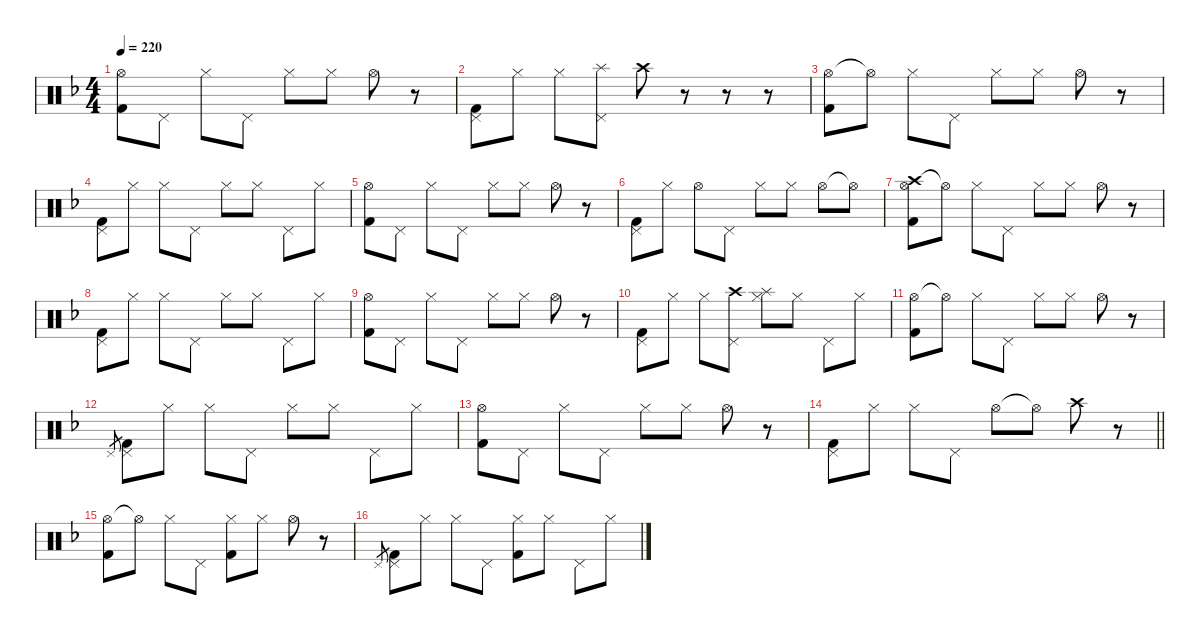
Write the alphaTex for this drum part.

\hideDynamics
\bracketExtendMode nobrackets
\singleTrackTrackNamePolicy hidden
\multiTrackTrackNamePolicy hidden
\firstSystemTrackNameMode fullname
\firstSystemTrackNameOrientation horizontal
\otherSystemsTrackNameOrientation horizontal
\track ("Drumkit" "Drums") {instrument percussion}
\staff {score}
\articulation defaults
\ts (4 4)
\tempo 220
\clef neutral
\ks dminor
("Hi-Hat (open)"{acc forcenatural} "Kick (hit) 2"{acc forcenatural}).8{dy mp beam Down} "Pedal Hi-Hat (hit)"{acc forcenatural}.8{beam Down} "Hi-Hat (closed)"{acc forcenatural}.8{dy p beam Down} "Pedal Hi-Hat (hit)"{acc forcenatural}.8{beam Down} "Hi-Hat (closed)"{acc forcenatural}.8{dy mp beam Down} "Hi-Hat (closed)"{acc forcenatural}.8{beam Down} "Hi-Hat (open)"{acc forcenatural}.8{beam Down} r.8{beam Down} |
("Pedal Hi-Hat (hit)"{acc forcenatural} "Kick (hit) 2"{acc forcenatural}).8{dy p beam Down} "Hi-Hat (closed)"{acc forcenatural}.8{beam Down} "Hi-Hat (closed)"{acc forcenatural}.8{dy mp beam Down} ("Splash (hit)"{acc forcenatural} "Pedal Hi-Hat (hit)"{acc forcenatural}).8{dy mf beam Down} "Crash high (hit)"{acc forcenatural}.8{dy mp beam Down} r.8{beam Down} r.8{beam Down} r.8{beam Down} |
("Hi-Hat (open)"{acc forcenatural} "Kick (hit) 2"{acc forcenatural}).8{beam Down} "Hi-Hat (open)"{t acc forcenatural}.8{beam Down} "Hi-Hat (closed)"{acc forcenatural}.8{dy p beam Down} "Pedal Hi-Hat (hit)"{acc forcenatural}.8{beam Down} "Hi-Hat (closed)"{acc forcenatural}.8{dy mp beam Down} "Hi-Hat (closed)"{acc forcenatural}.8{beam Down} "Hi-Hat (open)"{acc forcenatural}.8{beam Down} r.8{beam Down} |
("Pedal Hi-Hat (hit)"{acc forcenatural} "Kick (hit) 2"{acc forcenatural}).8{dy p beam Down} "Hi-Hat (closed)"{acc forcenatural}.8{beam Down} "Hi-Hat (closed)"{acc forcenatural}.8{dy mp beam Down} "Pedal Hi-Hat (hit)"{acc forcenatural}.8{dy mf beam Down} "Hi-Hat (closed)"{acc forcenatural}.8{dy mp beam Down} "Hi-Hat (closed)"{acc forcenatural}.8{beam Down} "Pedal Hi-Hat (hit)"{acc forcenatural}.8{dy p beam Down} "Hi-Hat (closed)"{acc forcenatural}.8{beam Down} |
("Hi-Hat (open)"{acc forcenatural} "Kick (hit) 2"{acc forcenatural}).8{dy mp beam Down} "Pedal Hi-Hat (hit)"{acc forcenatural}.8{beam Down} "Hi-Hat (closed)"{acc forcenatural}.8{dy p beam Down} "Pedal Hi-Hat (hit)"{acc forcenatural}.8{beam Down} "Hi-Hat (closed)"{acc forcenatural}.8{dy mp beam Down} "Hi-Hat (closed)"{acc forcenatural}.8{beam Down} "Hi-Hat (open)"{acc forcenatural}.8{beam Down} r.8{beam Down} |
("Pedal Hi-Hat (hit)"{acc forcenatural} "Kick (hit) 2"{acc forcenatural}).8{dy p beam Down} "Hi-Hat (closed)"{acc forcenatural}.8{beam Down} "Hi-Hat (open)"{acc forcenatural}.8{dy mp beam Down} "Pedal Hi-Hat (hit)"{acc forcenatural}.8{dy f beam Down} "Hi-Hat (closed)"{acc forcenatural}.8{dy mp beam Down} "Hi-Hat (closed)"{acc forcenatural}.8{beam Down} "Hi-Hat (open)"{acc forcenatural}.8{dy p beam Down} "Hi-Hat (open)"{t acc forcenatural}.8{beam Down} |
("Crash high (hit)"{acc forcenatural} "Hi-Hat (open)"{acc forcenatural} "Kick (hit) 2"{acc forcenatural}).8{dy mp beam Down} "Hi-Hat (open)"{t acc forcenatural}.8{beam Down} "Hi-Hat (closed)"{acc forcenatural}.8{dy p beam Down} "Pedal Hi-Hat (hit)"{acc forcenatural}.8{beam Down} "Hi-Hat (closed)"{acc forcenatural}.8{dy mp beam Down} "Hi-Hat (closed)"{acc forcenatural}.8{beam Down} "Hi-Hat (open)"{acc forcenatural}.8{beam Down} r.8{beam Down} |
("Pedal Hi-Hat (hit)"{acc forcenatural} "Kick (hit) 2"{acc forcenatural}).8{dy p beam Down} "Hi-Hat (closed)"{acc forcenatural}.8{beam Down} "Hi-Hat (closed)"{acc forcenatural}.8{dy mp beam Down} "Pedal Hi-Hat (hit)"{acc forcenatural}.8{dy mf beam Down} "Hi-Hat (closed)"{acc forcenatural}.8{dy mp beam Down} "Hi-Hat (closed)"{acc forcenatural}.8{beam Down} "Pedal Hi-Hat (hit)"{acc forcenatural}.8{dy p beam Down} "Hi-Hat (closed)"{acc forcenatural}.8{beam Down} |
("Hi-Hat (open)"{acc forcenatural} "Kick (hit) 2"{acc forcenatural}).8{dy mp beam Down} "Pedal Hi-Hat (hit)"{acc forcenatural}.8{beam Down} "Hi-Hat (closed)"{acc forcenatural}.8{dy p beam Down} "Pedal Hi-Hat (hit)"{acc forcenatural}.8{beam Down} "Hi-Hat (closed)"{acc forcenatural}.8{dy mp beam Down} "Hi-Hat (closed)"{acc forcenatural}.8{beam Down} "Hi-Hat (open)"{acc forcenatural}.8{beam Down} r.8{beam Down} |
("Pedal Hi-Hat (hit)"{acc forcenatural} "Kick (hit) 2"{acc forcenatural}).8{dy p beam Down} "Hi-Hat (closed)"{acc forcenatural}.8{beam Down} "Hi-Hat (closed)"{acc forcenatural}.8{dy mp beam Down} ("Crash high (hit)"{acc forcenatural} "Pedal Hi-Hat (hit)"{acc forcenatural}).8{beam Down} ("Splash (hit)"{acc forcenatural} "Hi-Hat (closed)"{acc forcenatural}).8{beam Down} "Hi-Hat (closed)"{acc forcenatural}.8{beam Down} "Pedal Hi-Hat (hit)"{acc forcenatural}.8{dy p beam Down} "Hi-Hat (closed)"{acc forcenatural}.8{beam Down} |
("Hi-Hat (open)"{acc forcenatural} "Kick (hit) 2"{acc forcenatural}).8{dy mp beam Down} "Hi-Hat (open)"{t acc forcenatural}.8{beam Down} "Hi-Hat (closed)"{acc forcenatural}.8{dy p beam Down} "Pedal Hi-Hat (hit)"{acc forcenatural}.8{beam Down} "Hi-Hat (closed)"{acc forcenatural}.8{dy mp beam Down} "Hi-Hat (closed)"{acc forcenatural}.8{beam Down} "Hi-Hat (open)"{acc forcenatural}.8{beam Down} r.8{beam Down} |
"Pedal Hi-Hat (hit)"{acc forcenatural}.8{gr dy p beam Up} ("Pedal Hi-Hat (hit)"{acc forcenatural} "Kick (hit) 2"{acc forcenatural}).8{beam Down} "Hi-Hat (closed)"{acc forcenatural}.8{beam Down} "Hi-Hat (closed)"{acc forcenatural}.8{dy mp beam Down} "Pedal Hi-Hat (hit)"{acc forcenatural}.8{dy mf beam Down} "Hi-Hat (closed)"{acc forcenatural}.8{dy mp beam Down} "Hi-Hat (closed)"{acc forcenatural}.8{beam Down} "Pedal Hi-Hat (hit)"{acc forcenatural}.8{dy p beam Down} "Hi-Hat (closed)"{acc forcenatural}.8{beam Down} |
("Hi-Hat (open)"{acc forcenatural} "Kick (hit) 2"{acc forcenatural}).8{dy mp beam Down} "Pedal Hi-Hat (hit)"{acc forcenatural}.8{beam Down} "Hi-Hat (closed)"{acc forcenatural}.8{dy p beam Down} "Pedal Hi-Hat (hit)"{acc forcenatural}.8{beam Down} "Hi-Hat (closed)"{acc forcenatural}.8{dy mp beam Down} "Hi-Hat (closed)"{acc forcenatural}.8{beam Down} "Hi-Hat (open)"{acc forcenatural}.8{beam Down} r.8{beam Down} |
\barLineRight lightlight
("Pedal Hi-Hat (hit)"{acc forcenatural} "Kick (hit) 2"{acc forcenatural}).8{dy p beam Down} "Hi-Hat (closed)"{acc forcenatural}.8{beam Down} "Hi-Hat (closed)"{acc forcenatural}.8{dy mp beam Down} "Pedal Hi-Hat (hit)"{acc forcenatural}.8{dy mf beam Down} "Hi-Hat (open)"{acc forcenatural}.8{dy mp beam Down} "Hi-Hat (open)"{t acc forcenatural}.8{beam Down} "Crash high (hit)"{acc forcenatural}.8{dy p beam Down} r.8{beam Down} |
("Hi-Hat (open)"{acc forcenatural} "Kick (hit) 2"{acc forcenatural}).8{beam Down} "Hi-Hat (open)"{t acc forcenatural}.8{beam Down} "Hi-Hat (closed)"{acc forcenatural}.8{dy mp beam Down} "Pedal Hi-Hat (hit)"{acc forcenatural}.8{beam Down} ("Hi-Hat (closed)"{acc forcenatural} "Kick (hit) 2"{acc forcenatural}).8{beam Down} "Hi-Hat (closed)"{acc forcenatural}.8{beam Down} "Hi-Hat (open)"{acc forcenatural}.8{beam Down} r.8{beam Down} |
"Pedal Hi-Hat (hit)"{acc forcenatural}.8{gr dy p beam Up} ("Pedal Hi-Hat (hit)"{acc forcenatural} "Kick (hit) 2"{acc forcenatural}).8{beam Down} "Hi-Hat (closed)"{acc forcenatural}.8{beam Down} "Hi-Hat (closed)"{acc forcenatural}.8{dy mp beam Down} "Pedal Hi-Hat (hit)"{acc forcenatural}.8{dy mf beam Down} ("Hi-Hat (closed)"{acc forcenatural} "Kick (hit) 2"{acc forcenatural}).8{dy mp beam Down} "Hi-Hat (closed)"{acc forcenatural}.8{beam Down} "Pedal Hi-Hat (hit)"{acc forcenatural}.8{beam Down} "Hi-Hat (closed)"{acc forcenatural}.8{dy p beam Down}
